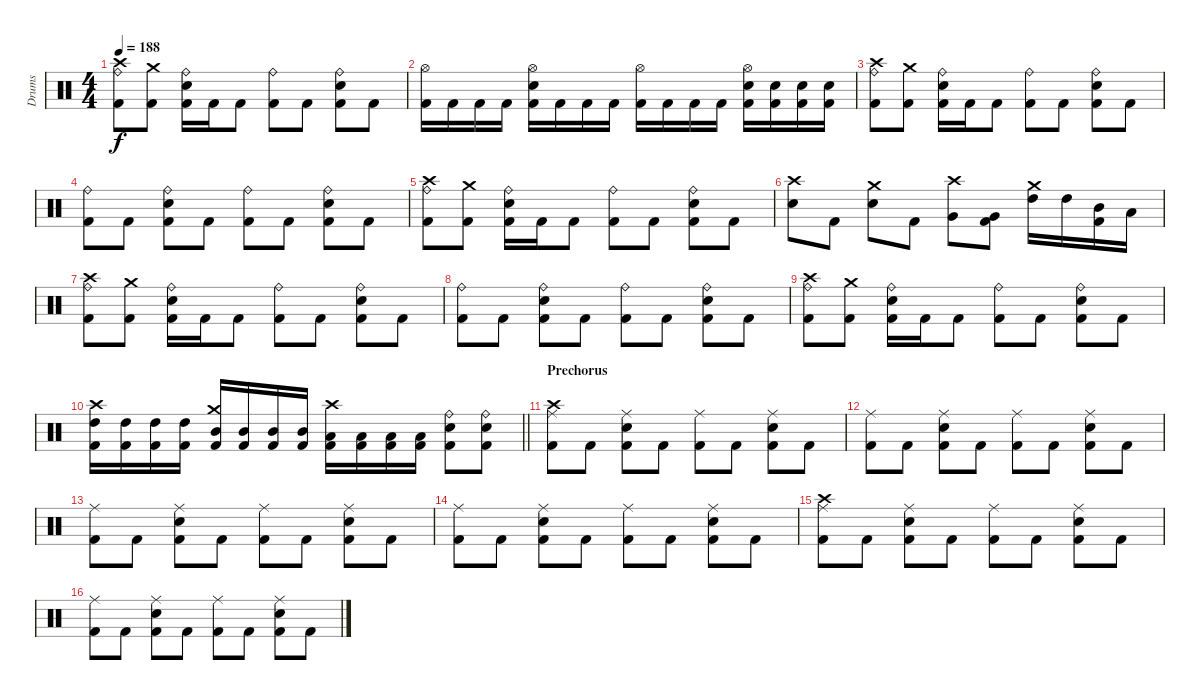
\track ("Drums" "Drums") {instrument percussion}
\staff {score}
\articulation defaults
\ts (4 4)
\tempo 188
\clef neutral
\ks c
("Crash high (hit)" "Ride (bell)" "Kick (hit) 2").8{dy f} ("Crash medium (hit)" "Kick (hit) 2").8 ("Ride (bell)" "Snare (hit) 2" "Kick (hit) 2").16 "Kick (hit) 2".16 "Kick (hit) 2".8 ("Ride (bell)" "Kick (hit) 2").8 "Kick (hit) 2".8 ("Ride (bell)" "Snare (hit) 2" "Kick (hit) 2").8 "Kick (hit) 2".8 |
("Hi-Hat (open)" "Kick (hit) 2").16 "Kick (hit) 2".16 "Kick (hit) 2".16 "Kick (hit) 2".16 ("Hi-Hat (open)" "Snare (hit) 2" "Kick (hit) 2").16 "Kick (hit) 2".16 "Kick (hit) 2".16 "Kick (hit) 2".16 ("Hi-Hat (open)" "Kick (hit) 2").16 "Kick (hit) 2".16 "Kick (hit) 2".16 "Kick (hit) 2".16 ("Hi-Hat (open)" "Snare (hit) 2" "Kick (hit) 2").16 ("Snare (hit) 2" "Kick (hit) 2").16 ("Snare (hit) 2" "Kick (hit) 2").16 ("Snare (hit) 2" "Kick (hit) 2").16 |
("Crash high (hit)" "Ride (bell)" "Kick (hit) 2").8 ("Crash medium (hit)" "Kick (hit) 2").8 ("Ride (bell)" "Snare (hit) 2" "Kick (hit) 2").16 "Kick (hit) 2".16 "Kick (hit) 2".8 ("Ride (bell)" "Kick (hit) 2").8 "Kick (hit) 2".8 ("Ride (bell)" "Snare (hit) 2" "Kick (hit) 2").8 "Kick (hit) 2".8 |
("Ride (bell)" "Kick (hit) 2").8 "Kick (hit) 2".8 ("Ride (bell)" "Snare (hit) 2" "Kick (hit) 2").8 "Kick (hit) 2".8 ("Ride (bell)" "Kick (hit) 2").8 "Kick (hit) 2".8 ("Ride (bell)" "Snare (hit) 2" "Kick (hit) 2").8 "Kick (hit) 2".8 |
("Crash high (hit)" "Ride (bell)" "Kick (hit) 2").8 ("Crash medium (hit)" "Kick (hit) 2").8 ("Ride (bell)" "Snare (hit) 2" "Kick (hit) 2").16 "Kick (hit) 2".16 "Kick (hit) 2".8 ("Ride (bell)" "Kick (hit) 2").8 "Kick (hit) 2".8 ("Ride (bell)" "Snare (hit) 2" "Kick (hit) 2").8 "Kick (hit) 2".8 |
("Crash high (hit)" "Snare (hit) 2").8 "Kick (hit) 2".8 ("Crash medium (hit)" "Snare (hit) 2").8 "Kick (hit) 2".8 ("Crash high (hit)" "Very Low Tom (hit)").8 ("Very Low Tom (hit)" "Kick (hit) 2").8 ("Crash medium (hit)" "High Tom (hit)").16 "High Tom (hit)".16 ("Mid Tom (hit)" "Kick (hit) 2").16 "Low Tom (hit)".16 |
("Crash high (hit)" "Ride (bell)" "Kick (hit) 2").8 ("Crash medium (hit)" "Kick (hit) 2").8 ("Ride (bell)" "Snare (hit) 2" "Kick (hit) 2").16 "Kick (hit) 2".16 "Kick (hit) 2".8 ("Ride (bell)" "Kick (hit) 2").8 "Kick (hit) 2".8 ("Ride (bell)" "Snare (hit) 2" "Kick (hit) 2").8 "Kick (hit) 2".8 |
("Ride (bell)" "Kick (hit) 2").8 "Kick (hit) 2".8 ("Ride (bell)" "Snare (hit) 2" "Kick (hit) 2").8 "Kick (hit) 2".8 ("Ride (bell)" "Kick (hit) 2").8 "Kick (hit) 2".8 ("Ride (bell)" "Snare (hit) 2" "Kick (hit) 2").8 "Kick (hit) 2".8 |
("Crash high (hit)" "Ride (bell)" "Kick (hit) 2").8 ("Crash medium (hit)" "Kick (hit) 2").8 ("Ride (bell)" "Snare (hit) 2" "Kick (hit) 2").16 "Kick (hit) 2".16 "Kick (hit) 2".8 ("Ride (bell)" "Kick (hit) 2").8 "Kick (hit) 2".8 ("Ride (bell)" "Snare (hit) 2" "Kick (hit) 2").8 "Kick (hit) 2".8 |
\barLineRight lightlight
("Crash high (hit)" "High Tom (hit)" "Kick (hit) 2").16 ("High Tom (hit)" "Kick (hit) 2").16 ("High Tom (hit)" "Kick (hit) 2").16 ("High Tom (hit)" "Kick (hit) 2").16 ("Crash medium (hit)" "Mid Tom (hit)" "Kick (hit) 2").16 ("Mid Tom (hit)" "Kick (hit) 2").16 ("Mid Tom (hit)" "Kick (hit) 2").16 ("Mid Tom (hit)" "Kick (hit) 2").16 ("Crash high (hit)" "Low Tom (hit)" "Kick (hit) 2").16 ("Low Tom (hit)" "Kick (hit) 2").16 ("Low Tom (hit)" "Kick (hit) 2").16 ("Low Tom (hit)" "Kick (hit) 2").16 ("Ride (bell)" "Snare (hit) 2" "Kick (hit) 2").8 ("Ride (bell)" "Snare (hit) 2" "Kick (hit) 2").8 |
\section ("" "Prechorus")
("Crash high (hit)" "Ride (middle)" "Kick (hit) 2").8 "Kick (hit) 2".8 ("Ride (middle)" "Snare (hit) 2" "Kick (hit) 2").8 "Kick (hit) 2".8 ("Ride (middle)" "Kick (hit) 2").8 "Kick (hit) 2".8 ("Ride (middle)" "Snare (hit) 2" "Kick (hit) 2").8 "Kick (hit) 2".8 |
("Ride (middle)" "Kick (hit) 2").8 "Kick (hit) 2".8 ("Ride (middle)" "Snare (hit) 2" "Kick (hit) 2").8 "Kick (hit) 2".8 ("Ride (middle)" "Kick (hit) 2").8 "Kick (hit) 2".8 ("Ride (middle)" "Snare (hit) 2" "Kick (hit) 2").8 "Kick (hit) 2".8 |
("Ride (middle)" "Kick (hit) 2").8 "Kick (hit) 2".8 ("Ride (middle)" "Snare (hit) 2" "Kick (hit) 2").8 "Kick (hit) 2".8 ("Ride (middle)" "Kick (hit) 2").8 "Kick (hit) 2".8 ("Ride (middle)" "Snare (hit) 2" "Kick (hit) 2").8 "Kick (hit) 2".8 |
("Ride (middle)" "Kick (hit) 2").8 "Kick (hit) 2".8 ("Ride (middle)" "Snare (hit) 2" "Kick (hit) 2").8 "Kick (hit) 2".8 ("Ride (middle)" "Kick (hit) 2").8 "Kick (hit) 2".8 ("Ride (middle)" "Snare (hit) 2" "Kick (hit) 2").8 "Kick (hit) 2".8 |
("Crash high (hit)" "Ride (middle)" "Kick (hit) 2").8 "Kick (hit) 2".8 ("Ride (middle)" "Snare (hit) 2" "Kick (hit) 2").8 "Kick (hit) 2".8 ("Ride (middle)" "Kick (hit) 2").8 "Kick (hit) 2".8 ("Ride (middle)" "Snare (hit) 2" "Kick (hit) 2").8 "Kick (hit) 2".8 |
("Ride (middle)" "Kick (hit) 2").8 "Kick (hit) 2".8 ("Ride (middle)" "Snare (hit) 2" "Kick (hit) 2").8 "Kick (hit) 2".8 ("Ride (middle)" "Kick (hit) 2").8 "Kick (hit) 2".8 ("Ride (middle)" "Snare (hit) 2" "Kick (hit) 2").8 "Kick (hit) 2".8
